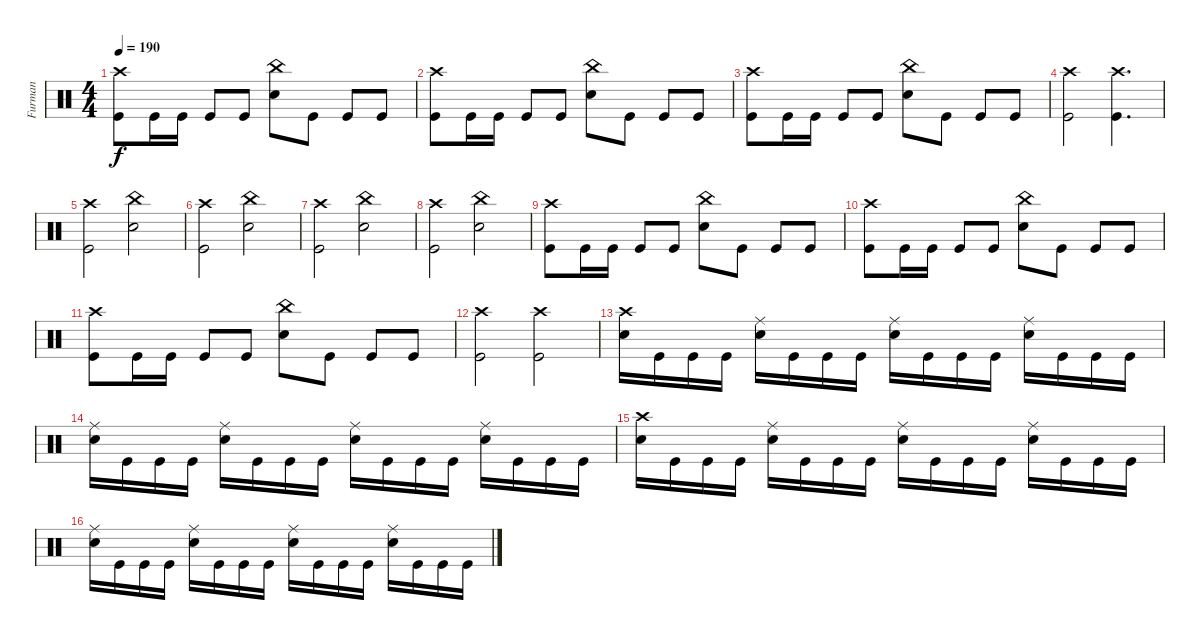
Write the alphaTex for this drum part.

\track ("Furman" "Furman") {instrument percussion}
\staff {score}
\articulation defaults
\ts (4 4)
\tempo 190
\clef neutral
\ks c
("Crash high (hit)" "Kick (hit)").8{dy f} "Kick (hit)".16 "Kick (hit)".16 "Kick (hit)".8 "Kick (hit)".8 ("China (hit)" "Electric Snare (hit)").8 "Kick (hit)".8 "Kick (hit)".8 "Kick (hit)".8 |
("Crash high (hit)" "Kick (hit)").8 "Kick (hit)".16 "Kick (hit)".16 "Kick (hit)".8 "Kick (hit)".8 ("China (hit)" "Electric Snare (hit)").8 "Kick (hit)".8 "Kick (hit)".8 "Kick (hit)".8 |
("Crash high (hit)" "Kick (hit)").8 "Kick (hit)".16 "Kick (hit)".16 "Kick (hit)".8 "Kick (hit)".8 ("China (hit)" "Electric Snare (hit)").8 "Kick (hit)".8 "Kick (hit)".8 "Kick (hit)".8 |
("Crash high (hit)" "Kick (hit)").2 ("Crash high (hit)" "Kick (hit)").4{d} |
("Crash high (hit)" "Kick (hit)").2 ("China (hit)" "Electric Snare (hit)").2 |
("Crash high (hit)" "Kick (hit)").2 ("China (hit)" "Electric Snare (hit)").2 |
("Crash high (hit)" "Kick (hit)").2 ("China (hit)" "Electric Snare (hit)").2 |
("Crash high (hit)" "Kick (hit)").2 ("China (hit)" "Electric Snare (hit)").2 |
("Crash high (hit)" "Kick (hit)").8 "Kick (hit)".16 "Kick (hit)".16 "Kick (hit)".8 "Kick (hit)".8 ("China (hit)" "Electric Snare (hit)").8 "Kick (hit)".8 "Kick (hit)".8 "Kick (hit)".8 |
("Crash high (hit)" "Kick (hit)").8 "Kick (hit)".16 "Kick (hit)".16 "Kick (hit)".8 "Kick (hit)".8 ("China (hit)" "Electric Snare (hit)").8 "Kick (hit)".8 "Kick (hit)".8 "Kick (hit)".8 |
("Crash high (hit)" "Kick (hit)").8 "Kick (hit)".16 "Kick (hit)".16 "Kick (hit)".8 "Kick (hit)".8 ("China (hit)" "Electric Snare (hit)").8 "Kick (hit)".8 "Kick (hit)".8 "Kick (hit)".8 |
("Crash high (hit)" "Kick (hit)").2 ("Crash high (hit)" "Kick (hit)").2 |
("Crash high (hit)" "Electric Snare (hit)").16 "Kick (hit)".16 "Kick (hit)".16 "Kick (hit)".16 ("Ride (middle)" "Electric Snare (hit)").16 "Kick (hit)".16 "Kick (hit)".16 "Kick (hit)".16 ("Ride (middle)" "Electric Snare (hit)").16 "Kick (hit)".16 "Kick (hit)".16 "Kick (hit)".16 ("Ride (middle)" "Electric Snare (hit)").16 "Kick (hit)".16 "Kick (hit)".16 "Kick (hit)".16 |
("Ride (middle)" "Electric Snare (hit)").16 "Kick (hit)".16 "Kick (hit)".16 "Kick (hit)".16 ("Ride (middle)" "Electric Snare (hit)").16 "Kick (hit)".16 "Kick (hit)".16 "Kick (hit)".16 ("Ride (middle)" "Electric Snare (hit)").16 "Kick (hit)".16 "Kick (hit)".16 "Kick (hit)".16 ("Ride (middle)" "Electric Snare (hit)").16 "Kick (hit)".16 "Kick (hit)".16 "Kick (hit)".16 |
("Crash high (hit)" "Electric Snare (hit)").16 "Kick (hit)".16 "Kick (hit)".16 "Kick (hit)".16 ("Ride (middle)" "Electric Snare (hit)").16 "Kick (hit)".16 "Kick (hit)".16 "Kick (hit)".16 ("Ride (middle)" "Electric Snare (hit)").16 "Kick (hit)".16 "Kick (hit)".16 "Kick (hit)".16 ("Ride (middle)" "Electric Snare (hit)").16 "Kick (hit)".16 "Kick (hit)".16 "Kick (hit)".16 |
("Ride (middle)" "Electric Snare (hit)").16 "Kick (hit)".16 "Kick (hit)".16 "Kick (hit)".16 ("Ride (middle)" "Electric Snare (hit)").16 "Kick (hit)".16 "Kick (hit)".16 "Kick (hit)".16 ("Ride (middle)" "Electric Snare (hit)").16 "Kick (hit)".16 "Kick (hit)".16 "Kick (hit)".16 ("Ride (middle)" "Electric Snare (hit)").16 "Kick (hit)".16 "Kick (hit)".16 "Kick (hit)".16
